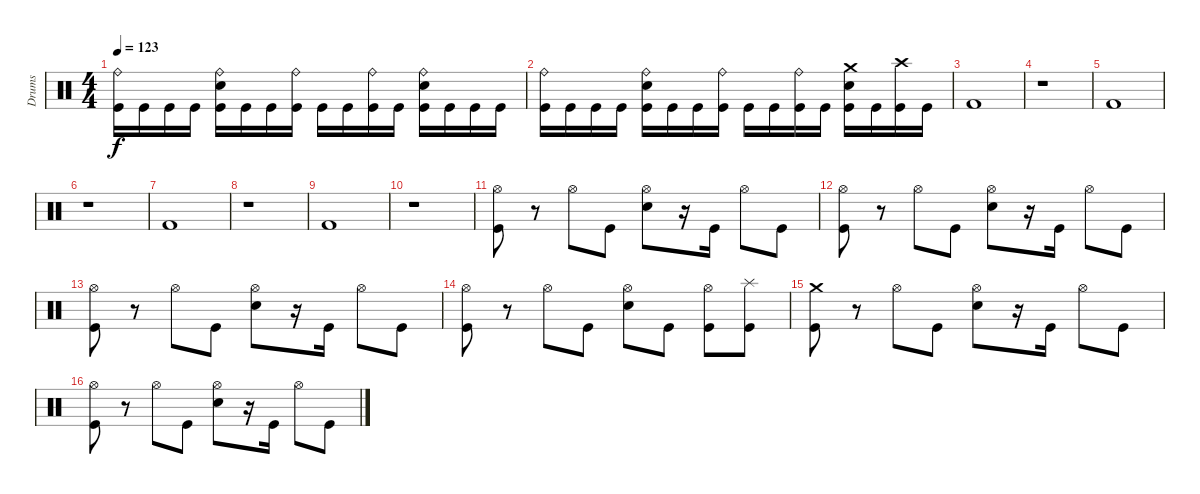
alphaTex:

\track ("Drums" "Drums") {instrument percussion}
\staff {score}
\articulation defaults
\ts (4 4)
\tempo 123
\clef neutral
\ks c
("Ride (bell)" "Kick (hit)").16{dy f} "Kick (hit)".16 "Kick (hit)".16 "Kick (hit)".16 ("Ride (bell)" "Electric Snare (hit)" "Kick (hit)").16 "Kick (hit)".16 "Kick (hit)".16 ("Ride (bell)" "Kick (hit)").16 "Kick (hit)".16 "Kick (hit)".16 ("Ride (bell)" "Kick (hit)").16 "Kick (hit)".16 ("Ride (bell)" "Electric Snare (hit)" "Kick (hit)").16 "Kick (hit)".16 "Kick (hit)".16 "Kick (hit)".16 |
("Ride (bell)" "Kick (hit)").16 "Kick (hit)".16 "Kick (hit)".16 "Kick (hit)".16 ("Ride (bell)" "Electric Snare (hit)" "Kick (hit)").16 "Kick (hit)".16 "Kick (hit)".16 ("Ride (bell)" "Kick (hit)").16 "Kick (hit)".16 "Kick (hit)".16 ("Ride (bell)" "Kick (hit)").16 "Kick (hit)".16 ("Crash medium (hit)" "Electric Snare (hit)" "Kick (hit)").16 "Kick (hit)".16 ("Crash high (hit)" "Kick (hit)").16 "Kick (hit)".16 |
"Kick (hit) 2".1 |
r.1 |
"Kick (hit) 2".1 |
r.1 |
"Kick (hit) 2".1 |
r.1 |
"Kick (hit) 2".1 |
r.1 |
("Hi-Hat (open)" "Kick (hit)").8 r.8 "Hi-Hat (open)".8 "Kick (hit)".8 ("Hi-Hat (open)" "Electric Snare (hit)").8 r.16 "Kick (hit)".16 "Hi-Hat (open)".8 "Kick (hit)".8 |
("Hi-Hat (open)" "Kick (hit)").8 r.8 "Hi-Hat (open)".8 "Kick (hit)".8 ("Hi-Hat (open)" "Electric Snare (hit)").8 r.16 "Kick (hit)".16 "Hi-Hat (open)".8 "Kick (hit)".8 |
("Hi-Hat (open)" "Kick (hit)").8 r.8 "Hi-Hat (open)".8 "Kick (hit)".8 ("Hi-Hat (open)" "Electric Snare (hit)").8 r.16 "Kick (hit)".16 "Hi-Hat (open)".8 "Kick (hit)".8 |
("Hi-Hat (open)" "Kick (hit)").8 r.8 "Hi-Hat (open)".8 "Kick (hit)".8 ("Hi-Hat (open)" "Electric Snare (hit)").8 "Kick (hit)".8 ("Hi-Hat (open)" "Kick (hit)").8 ("Splash (hit)" "Kick (hit)").8 |
("Crash medium (hit)" "Kick (hit)").8 r.8 "Hi-Hat (open)".8 "Kick (hit)".8 ("Hi-Hat (open)" "Electric Snare (hit)").8 r.16 "Kick (hit)".16 "Hi-Hat (open)".8 "Kick (hit)".8 |
("Hi-Hat (open)" "Kick (hit)").8 r.8 "Hi-Hat (open)".8 "Kick (hit)".8 ("Hi-Hat (open)" "Electric Snare (hit)").8 r.16 "Kick (hit)".16 "Hi-Hat (open)".8 "Kick (hit)".8
